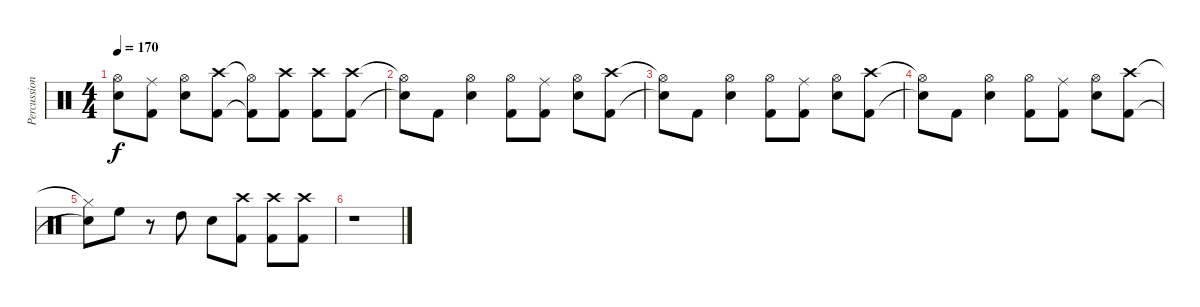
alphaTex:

\track ("Percussion" "Percussion") {instrument percussion}
\staff {score}
\articulation defaults
\ts (4 4)
\tempo 170
\clef neutral
\ks c
("Hi-Hat (open)"{t} "Snare (hit)"{t}).8{dy f} ("Ride (middle)" "Kick (hit) 2").8 ("Hi-Hat (open)" "Snare (hit) 2").8 ("Crash high (hit)" "Kick (hit) 2").8 ("Hi-Hat (open)"{t} "Kick (hit) 2"{t}).8 ("Crash high (hit)" "Kick (hit) 2").8 ("Crash high (hit)" "Kick (hit) 2").8 ("Crash high (hit)" "Kick (hit) 2").8 |
("Hi-Hat (open)"{t} "Snare (hit)"{t}).8 "Kick (hit) 2".8 ("Hi-Hat (open)" "Snare (hit) 2").4 ("Hi-Hat (open)" "Kick (hit) 2").8 ("Ride (middle)" "Kick (hit) 2").8 ("Hi-Hat (open)" "Snare (hit) 2").8 ("Crash high (hit)" "Kick (hit) 2").8 |
("Hi-Hat (open)"{t} "Snare (hit)"{t}).8 "Kick (hit) 2".8 ("Hi-Hat (open)" "Snare (hit) 2").4 ("Hi-Hat (open)" "Kick (hit) 2").8 ("Ride (middle)" "Kick (hit) 2").8 ("Hi-Hat (open)" "Snare (hit) 2").8 ("Crash high (hit)" "Kick (hit) 2").8 |
("Hi-Hat (open)"{t} "Snare (hit)"{t}).8 "Kick (hit) 2".8 ("Hi-Hat (open)" "Snare (hit) 2").4 ("Hi-Hat (open)" "Kick (hit) 2").8 ("Ride (middle)" "Kick (hit) 2").8 ("Hi-Hat (open)" "Snare (hit) 2").8 ("Crash high (hit)" "Kick (hit) 2").8 |
("Hi-Hat (closed)"{t} "Snare (hit)"{t}).8 "High Floor Tom (hit)".8 r.8 "High Tom (hit)".8 "Snare (hit) 2".8 ("Crash high (hit)" "Kick (hit) 2").8 ("Crash high (hit)" "Kick (hit) 2").8 ("Crash high (hit)" "Kick (hit) 2").8 |
r.1
